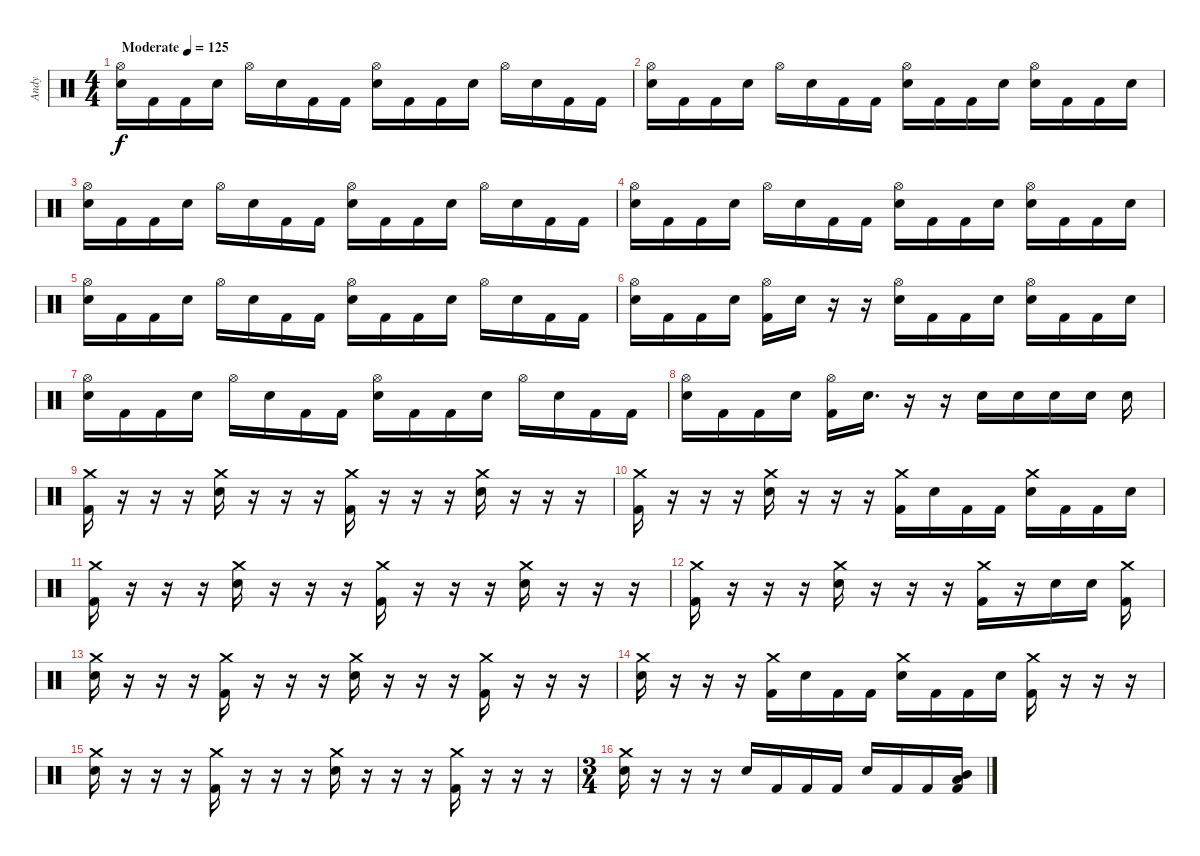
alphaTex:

\track ("Andy" "Andy") {instrument percussion}
\staff {score}
\articulation defaults
\ts (4 4)
\tempo (125 "Moderate")
\clef neutral
\ks c
("Hi-Hat (open)" "Electric Snare (hit)").16{dy f volume 8} "Kick (hit) 2".16 "Kick (hit) 2".16 "Electric Snare (hit)".16 "Hi-Hat (open)".16 "Electric Snare (hit)".16 "Kick (hit) 2".16 "Kick (hit) 2".16 ("Hi-Hat (open)" "Electric Snare (hit)").16 "Kick (hit) 2".16 "Kick (hit) 2".16 "Electric Snare (hit)".16 "Hi-Hat (open)".16 "Electric Snare (hit)".16 "Kick (hit) 2".16 "Kick (hit) 2".16 |
("Hi-Hat (open)" "Electric Snare (hit)").16 "Kick (hit) 2".16 "Kick (hit) 2".16 "Electric Snare (hit)".16 "Hi-Hat (open)".16 "Electric Snare (hit)".16 "Kick (hit) 2".16 "Kick (hit) 2".16 ("Hi-Hat (open)" "Electric Snare (hit)").16 "Kick (hit) 2".16 "Kick (hit) 2".16 "Electric Snare (hit)".16 ("Hi-Hat (open)" "Electric Snare (hit)").16 "Kick (hit) 2".16 "Kick (hit) 2".16 "Electric Snare (hit)".16 |
("Hi-Hat (open)" "Electric Snare (hit)").16 "Kick (hit) 2".16 "Kick (hit) 2".16 "Electric Snare (hit)".16 "Hi-Hat (open)".16 "Electric Snare (hit)".16 "Kick (hit) 2".16 "Kick (hit) 2".16 ("Hi-Hat (open)" "Electric Snare (hit)").16 "Kick (hit) 2".16 "Kick (hit) 2".16 "Electric Snare (hit)".16 "Hi-Hat (open)".16 "Electric Snare (hit)".16 "Kick (hit) 2".16 "Kick (hit) 2".16 |
("Hi-Hat (open)" "Electric Snare (hit)").16 "Kick (hit) 2".16 "Kick (hit) 2".16 "Electric Snare (hit)".16 "Hi-Hat (open)".16 "Electric Snare (hit)".16 "Kick (hit) 2".16 "Kick (hit) 2".16 ("Hi-Hat (open)" "Electric Snare (hit)").16 "Kick (hit) 2".16 "Kick (hit) 2".16 "Electric Snare (hit)".16 ("Hi-Hat (open)" "Electric Snare (hit)").16 "Kick (hit) 2".16 "Kick (hit) 2".16 "Electric Snare (hit)".16 |
("Hi-Hat (open)" "Electric Snare (hit)").16 "Kick (hit) 2".16 "Kick (hit) 2".16 "Electric Snare (hit)".16 "Hi-Hat (open)".16 "Electric Snare (hit)".16 "Kick (hit) 2".16 "Kick (hit) 2".16 ("Hi-Hat (open)" "Electric Snare (hit)").16 "Kick (hit) 2".16 "Kick (hit) 2".16 "Electric Snare (hit)".16 "Hi-Hat (open)".16 "Electric Snare (hit)".16 "Kick (hit) 2".16 "Kick (hit) 2".16 |
("Hi-Hat (open)" "Electric Snare (hit)").16 "Kick (hit) 2".16 "Kick (hit) 2".16 "Electric Snare (hit)".16 ("Hi-Hat (open)" "Kick (hit) 2").16 "Electric Snare (hit)".16 r.16 r.16 ("Hi-Hat (open)" "Electric Snare (hit)").16 "Kick (hit) 2".16 "Kick (hit) 2".16 "Electric Snare (hit)".16 ("Hi-Hat (open)" "Electric Snare (hit)").16 "Kick (hit) 2".16 "Kick (hit) 2".16 "Electric Snare (hit)".16 |
("Hi-Hat (open)" "Electric Snare (hit)").16 "Kick (hit) 2".16 "Kick (hit) 2".16 "Electric Snare (hit)".16 "Hi-Hat (open)".16 "Electric Snare (hit)".16 "Kick (hit) 2".16 "Kick (hit) 2".16 ("Hi-Hat (open)" "Electric Snare (hit)").16 "Kick (hit) 2".16 "Kick (hit) 2".16 "Electric Snare (hit)".16 "Hi-Hat (open)".16 "Electric Snare (hit)".16 "Kick (hit) 2".16 "Kick (hit) 2".16 |
("Hi-Hat (open)" "Electric Snare (hit)").16 "Kick (hit) 2".16 "Kick (hit) 2".16 "Electric Snare (hit)".16 ("Hi-Hat (open)" "Kick (hit) 2").16 "Electric Snare (hit)".16{d} r.16 r.16 "Electric Snare (hit)".16{volume 12} "Electric Snare (hit)".16 "Electric Snare (hit)".16 "Electric Snare (hit)".16 "Electric Snare (hit)".16 |
("Crash medium (hit)" "Kick (hit) 2").16 r.16 r.16 r.16 ("Crash medium (hit)" "Electric Snare (hit)").16 r.16 r.16 r.16 ("Crash medium (hit)" "Kick (hit) 2").16 r.16 r.16 r.16 ("Crash medium (hit)" "Electric Snare (hit)").16 r.16 r.16 r.16 |
("Crash medium (hit)" "Kick (hit) 2").16 r.16 r.16 r.16 ("Crash medium (hit)" "Electric Snare (hit)").16 r.16 r.16 r.16 ("Crash medium (hit)" "Kick (hit) 2").16 "Electric Snare (hit)".16 "Kick (hit) 2".16 "Kick (hit) 2".16 ("Crash medium (hit)" "Electric Snare (hit)").16 "Kick (hit) 2".16 "Kick (hit) 2".16 "Electric Snare (hit)".16 |
("Crash medium (hit)" "Kick (hit) 2").16 r.16 r.16 r.16 ("Crash medium (hit)" "Electric Snare (hit)").16 r.16 r.16 r.16 ("Crash medium (hit)" "Kick (hit) 2").16 r.16 r.16 r.16 ("Crash medium (hit)" "Electric Snare (hit)").16 r.16 r.16 r.16 |
("Crash medium (hit)" "Kick (hit) 2").16 r.16 r.16 r.16 ("Crash medium (hit)" "Electric Snare (hit)").16 r.16 r.16 r.16 ("Crash medium (hit)" "Kick (hit) 2").16 r.16 "Electric Snare (hit)".16 "Electric Snare (hit)".16 ("Crash medium (hit)" "Kick (hit) 2").16 |
("Crash medium (hit)" "Electric Snare (hit)").16 r.16 r.16 r.16 ("Crash medium (hit)" "Kick (hit) 2").16 r.16 r.16 r.16 ("Crash medium (hit)" "Electric Snare (hit)").16 r.16 r.16 r.16 ("Crash medium (hit)" "Kick (hit) 2").16 r.16 r.16 r.16 |
("Crash medium (hit)" "Electric Snare (hit)").16 r.16 r.16 r.16 ("Crash medium (hit)" "Kick (hit) 2").16 "Electric Snare (hit)".16 "Kick (hit) 2".16 "Kick (hit) 2".16 ("Crash medium (hit)" "Electric Snare (hit)").16 "Kick (hit) 2".16 "Kick (hit) 2".16 "Electric Snare (hit)".16 ("Crash medium (hit)" "Kick (hit) 2").16 r.16 r.16 r.16 |
("Crash medium (hit)" "Electric Snare (hit)").16 r.16 r.16 r.16 ("Crash medium (hit)" "Kick (hit) 2").16 r.16 r.16 r.16 ("Crash medium (hit)" "Electric Snare (hit)").16 r.16 r.16 r.16 ("Crash medium (hit)" "Kick (hit) 2").16 r.16 r.16 r.16 |
\ts (3 4)
("Crash medium (hit)" "Electric Snare (hit)").16 r.16 r.16 r.16 "Electric Snare (hit)".16 "Kick (hit) 2".16 "Kick (hit) 2".16 "Kick (hit) 2".16 "Electric Snare (hit)".16 "Kick (hit) 2".16 "Kick (hit) 2".16 ("Mid Tom (hit)" "Low Tom (hit)" "Kick (hit) 2").16
